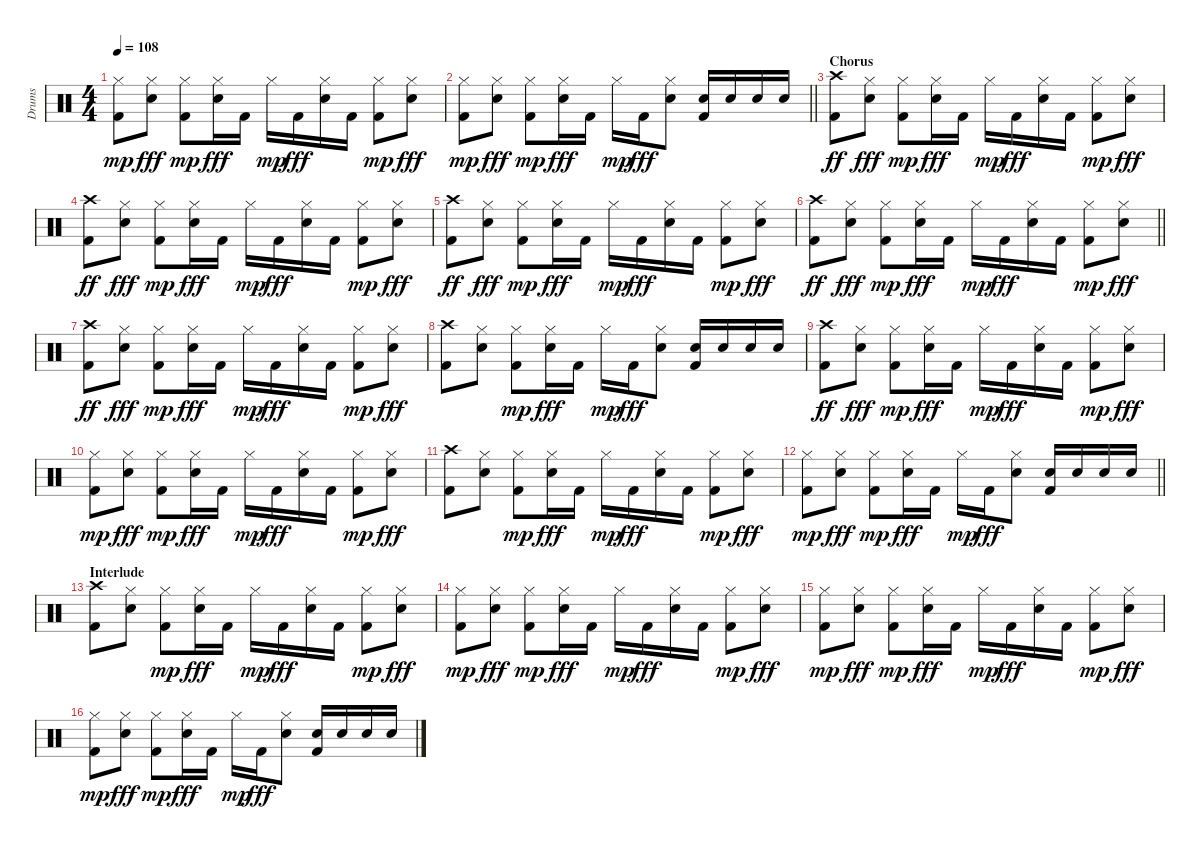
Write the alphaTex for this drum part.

\track ("Drums" "Drums") {instrument percussion}
\staff {score}
\articulation defaults
\ts (4 4)
\tempo 108
\clef neutral
\ks c
("Kick (hit) 2" "Hi-Hat (closed)").8{dy mp} ("Snare (hit) 2" "Hi-Hat (closed)").8{dy fff} ("Kick (hit) 2" "Hi-Hat (closed)").8{dy mp} ("Snare (hit) 2" "Hi-Hat (closed)").16{dy fff} "Kick (hit) 2".16 "Hi-Hat (closed)".16{dy mp} "Kick (hit) 2".16{dy fff} ("Snare (hit) 2" "Hi-Hat (closed)").16 "Kick (hit) 2".16 ("Kick (hit) 2" "Hi-Hat (closed)").8{dy mp} ("Snare (hit) 2" "Hi-Hat (closed)").8{dy fff} |
\barLineRight lightlight
("Kick (hit) 2" "Hi-Hat (closed)").8{dy mp} ("Snare (hit) 2" "Hi-Hat (closed)").8{dy fff} ("Kick (hit) 2" "Hi-Hat (closed)").8{dy mp} ("Snare (hit) 2" "Hi-Hat (closed)").16{dy fff} "Kick (hit) 2".16 "Hi-Hat (closed)".16{dy mp} "Kick (hit) 2".16{dy fff} ("Snare (hit) 2" "Hi-Hat (closed)").8 ("Snare (hit) 2" "Kick (hit) 2").16 "Snare (hit) 2".16 "Snare (hit) 2".16 "Snare (hit) 2".16 |
\section ("" "Chorus")
("Kick (hit) 2" "Crash high (hit)").8{dy ff} ("Snare (hit) 2" "Hi-Hat (closed)").8{dy fff} ("Kick (hit) 2" "Hi-Hat (closed)").8{dy mp} ("Snare (hit) 2" "Hi-Hat (closed)").16{dy fff} "Kick (hit) 2".16 "Hi-Hat (closed)".16{dy mp} "Kick (hit) 2".16{dy fff} ("Snare (hit) 2" "Hi-Hat (closed)").16 "Kick (hit) 2".16 ("Kick (hit) 2" "Hi-Hat (closed)").8{dy mp} ("Snare (hit) 2" "Hi-Hat (closed)").8{dy fff} |
("Kick (hit) 2" "Crash high (hit)").8{dy ff} ("Snare (hit) 2" "Hi-Hat (closed)").8{dy fff} ("Kick (hit) 2" "Hi-Hat (closed)").8{dy mp} ("Snare (hit) 2" "Hi-Hat (closed)").16{dy fff} "Kick (hit) 2".16 "Hi-Hat (closed)".16{dy mp} "Kick (hit) 2".16{dy fff} ("Snare (hit) 2" "Hi-Hat (closed)").16 "Kick (hit) 2".16 ("Kick (hit) 2" "Hi-Hat (closed)").8{dy mp} ("Snare (hit) 2" "Hi-Hat (closed)").8{dy fff} |
("Kick (hit) 2" "Crash high (hit)").8{dy ff} ("Snare (hit) 2" "Hi-Hat (closed)").8{dy fff} ("Kick (hit) 2" "Hi-Hat (closed)").8{dy mp} ("Snare (hit) 2" "Hi-Hat (closed)").16{dy fff} "Kick (hit) 2".16 "Hi-Hat (closed)".16{dy mp} "Kick (hit) 2".16{dy fff} ("Snare (hit) 2" "Hi-Hat (closed)").16 "Kick (hit) 2".16 ("Kick (hit) 2" "Hi-Hat (closed)").8{dy mp} ("Snare (hit) 2" "Hi-Hat (closed)").8{dy fff} |
\barLineRight lightlight
("Kick (hit) 2" "Crash high (hit)").8{dy ff} ("Snare (hit) 2" "Hi-Hat (closed)").8{dy fff} ("Kick (hit) 2" "Hi-Hat (closed)").8{dy mp} ("Snare (hit) 2" "Hi-Hat (closed)").16{dy fff} "Kick (hit) 2".16 "Hi-Hat (closed)".16{dy mp} "Kick (hit) 2".16{dy fff} ("Snare (hit) 2" "Hi-Hat (closed)").16 "Kick (hit) 2".16 ("Kick (hit) 2" "Hi-Hat (closed)").8{dy mp} ("Snare (hit) 2" "Hi-Hat (closed)").8{dy fff} |
("Kick (hit) 2" "Crash high (hit)").8{dy ff} ("Snare (hit) 2" "Hi-Hat (closed)").8{dy fff} ("Kick (hit) 2" "Hi-Hat (closed)").8{dy mp} ("Snare (hit) 2" "Hi-Hat (closed)").16{dy fff} "Kick (hit) 2".16 "Hi-Hat (closed)".16{dy mp} "Kick (hit) 2".16{dy fff} ("Snare (hit) 2" "Hi-Hat (closed)").16 "Kick (hit) 2".16 ("Kick (hit) 2" "Hi-Hat (closed)").8{dy mp} ("Snare (hit) 2" "Hi-Hat (closed)").8{dy fff} |
("Kick (hit) 2" "Crash high (hit)").8 ("Snare (hit) 2" "Hi-Hat (closed)").8 ("Kick (hit) 2" "Hi-Hat (closed)").8{dy mp} ("Snare (hit) 2" "Hi-Hat (closed)").16{dy fff} "Kick (hit) 2".16 "Hi-Hat (closed)".16{dy mp} "Kick (hit) 2".16{dy fff} ("Snare (hit) 2" "Hi-Hat (closed)").8 ("Snare (hit) 2" "Kick (hit) 2").16 "Snare (hit) 2".16 "Snare (hit) 2".16 "Snare (hit) 2".16 |
("Kick (hit) 2" "Crash high (hit)").8{dy ff} ("Snare (hit) 2" "Hi-Hat (closed)").8{dy fff} ("Kick (hit) 2" "Hi-Hat (closed)").8{dy mp} ("Snare (hit) 2" "Hi-Hat (closed)").16{dy fff} "Kick (hit) 2".16 "Hi-Hat (closed)".16{dy mp} "Kick (hit) 2".16{dy fff} ("Snare (hit) 2" "Hi-Hat (closed)").16 "Kick (hit) 2".16 ("Kick (hit) 2" "Hi-Hat (closed)").8{dy mp} ("Snare (hit) 2" "Hi-Hat (closed)").8{dy fff} |
("Kick (hit) 2" "Hi-Hat (closed)").8{dy mp} ("Snare (hit) 2" "Hi-Hat (closed)").8{dy fff} ("Kick (hit) 2" "Hi-Hat (closed)").8{dy mp} ("Snare (hit) 2" "Hi-Hat (closed)").16{dy fff} "Kick (hit) 2".16 "Hi-Hat (closed)".16{dy mp} "Kick (hit) 2".16{dy fff} ("Snare (hit) 2" "Hi-Hat (closed)").16 "Kick (hit) 2".16 ("Kick (hit) 2" "Hi-Hat (closed)").8{dy mp} ("Snare (hit) 2" "Hi-Hat (closed)").8{dy fff} |
("Kick (hit) 2" "Crash high (hit)").8 ("Snare (hit) 2" "Hi-Hat (closed)").8 ("Kick (hit) 2" "Hi-Hat (closed)").8{dy mp} ("Snare (hit) 2" "Hi-Hat (closed)").16{dy fff} "Kick (hit) 2".16 "Hi-Hat (closed)".16{dy mp} "Kick (hit) 2".16{dy fff} ("Snare (hit) 2" "Hi-Hat (closed)").16 "Kick (hit) 2".16 ("Kick (hit) 2" "Hi-Hat (closed)").8{dy mp} ("Snare (hit) 2" "Hi-Hat (closed)").8{dy fff} |
\barLineRight lightlight
("Kick (hit) 2" "Hi-Hat (closed)").8{dy mp} ("Snare (hit) 2" "Hi-Hat (closed)").8{dy fff} ("Kick (hit) 2" "Hi-Hat (closed)").8{dy mp} ("Snare (hit) 2" "Hi-Hat (closed)").16{dy fff} "Kick (hit) 2".16 "Hi-Hat (closed)".16{dy mp} "Kick (hit) 2".16{dy fff} ("Snare (hit) 2" "Hi-Hat (closed)").8 ("Snare (hit) 2" "Kick (hit) 2").16 "Snare (hit) 2".16 "Snare (hit) 2".16 "Snare (hit) 2".16 |
\section ("" "Interlude")
("Kick (hit) 2" "Crash high (hit)").8 ("Snare (hit) 2" "Hi-Hat (closed)").8 ("Kick (hit) 2" "Hi-Hat (closed)").8{dy mp} ("Snare (hit) 2" "Hi-Hat (closed)").16{dy fff} "Kick (hit) 2".16 "Hi-Hat (closed)".16{dy mp} "Kick (hit) 2".16{dy fff} ("Snare (hit) 2" "Hi-Hat (closed)").16 "Kick (hit) 2".16 ("Kick (hit) 2" "Hi-Hat (closed)").8{dy mp} ("Snare (hit) 2" "Hi-Hat (closed)").8{dy fff} |
("Kick (hit) 2" "Hi-Hat (closed)").8{dy mp} ("Snare (hit) 2" "Hi-Hat (closed)").8{dy fff} ("Kick (hit) 2" "Hi-Hat (closed)").8{dy mp} ("Snare (hit) 2" "Hi-Hat (closed)").16{dy fff} "Kick (hit) 2".16 "Hi-Hat (closed)".16{dy mp} "Kick (hit) 2".16{dy fff} ("Snare (hit) 2" "Hi-Hat (closed)").16 "Kick (hit) 2".16 ("Kick (hit) 2" "Hi-Hat (closed)").8{dy mp} ("Snare (hit) 2" "Hi-Hat (closed)").8{dy fff} |
("Kick (hit) 2" "Hi-Hat (closed)").8{dy mp} ("Snare (hit) 2" "Hi-Hat (closed)").8{dy fff} ("Kick (hit) 2" "Hi-Hat (closed)").8{dy mp} ("Snare (hit) 2" "Hi-Hat (closed)").16{dy fff} "Kick (hit) 2".16 "Hi-Hat (closed)".16{dy mp} "Kick (hit) 2".16{dy fff} ("Snare (hit) 2" "Hi-Hat (closed)").16 "Kick (hit) 2".16 ("Kick (hit) 2" "Hi-Hat (closed)").8{dy mp} ("Snare (hit) 2" "Hi-Hat (closed)").8{dy fff} |
("Kick (hit) 2" "Hi-Hat (closed)").8{dy mp} ("Snare (hit) 2" "Hi-Hat (closed)").8{dy fff} ("Kick (hit) 2" "Hi-Hat (closed)").8{dy mp} ("Snare (hit) 2" "Hi-Hat (closed)").16{dy fff} "Kick (hit) 2".16 "Hi-Hat (closed)".16{dy mp} "Kick (hit) 2".16{dy fff} ("Snare (hit) 2" "Hi-Hat (closed)").8 ("Snare (hit) 2" "Kick (hit) 2").16 "Snare (hit) 2".16 "Snare (hit) 2".16 "Snare (hit) 2".16
